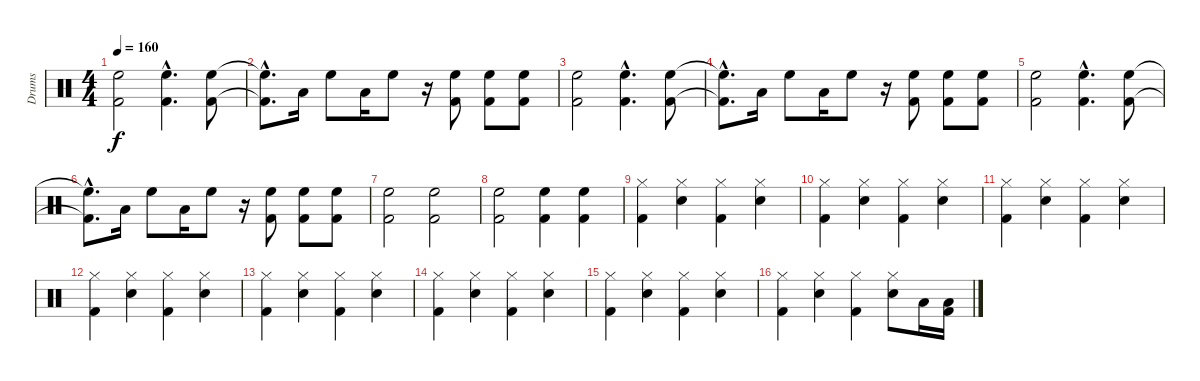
\track ("Drums" "Drums") {instrument percussion}
\staff {score}
\articulation defaults
\ts (4 4)
\tempo 160
\clef neutral
\ks c
("High Floor Tom (hit)" "Kick (hit) 2").2{dy f} ("High Floor Tom (hit)"{hac} "Kick (hit) 2"{hac}).4{d} ("High Floor Tom (hit)" "Kick (hit) 2").8 |
("High Floor Tom (hit)"{hac t} "Kick (hit) 2"{hac t}).8{d} "Low Floor Tom (hit)".16 "High Floor Tom (hit)".8 "Low Floor Tom (hit)".16 "High Floor Tom (hit)".8 r.16 ("High Floor Tom (hit)" "Kick (hit) 2").8 ("High Floor Tom (hit)" "Kick (hit) 2").8 ("High Floor Tom (hit)" "Kick (hit) 2").8 |
("High Floor Tom (hit)" "Kick (hit) 2").2 ("High Floor Tom (hit)"{hac} "Kick (hit) 2"{hac}).4{d} ("High Floor Tom (hit)" "Kick (hit) 2").8 |
("High Floor Tom (hit)"{hac t} "Kick (hit) 2"{hac t}).8{d} "Low Floor Tom (hit)".16 "High Floor Tom (hit)".8 "Low Floor Tom (hit)".16 "High Floor Tom (hit)".8 r.16 ("High Floor Tom (hit)" "Kick (hit) 2").8 ("High Floor Tom (hit)" "Kick (hit) 2").8 ("High Floor Tom (hit)" "Kick (hit) 2").8 |
("High Floor Tom (hit)" "Kick (hit) 2").2 ("High Floor Tom (hit)"{hac} "Kick (hit) 2"{hac}).4{d} ("High Floor Tom (hit)" "Kick (hit) 2").8 |
("High Floor Tom (hit)"{hac t} "Kick (hit) 2"{hac t}).8{d} "Low Floor Tom (hit)".16 "High Floor Tom (hit)".8 "Low Floor Tom (hit)".16 "High Floor Tom (hit)".8 r.16 ("High Floor Tom (hit)" "Kick (hit) 2").8 ("High Floor Tom (hit)" "Kick (hit) 2").8 ("High Floor Tom (hit)" "Kick (hit) 2").8 |
("High Floor Tom (hit)" "Kick (hit) 2").2 ("High Floor Tom (hit)" "Kick (hit) 2").2 |
("High Floor Tom (hit)" "Kick (hit) 2").2 ("High Floor Tom (hit)" "Kick (hit) 2").4 ("High Floor Tom (hit)" "Kick (hit) 2").4 |
("Hi-Hat (closed)" "Kick (hit) 2").4 ("Hi-Hat (closed)" "Snare (hit) 2").4 ("Hi-Hat (closed)" "Kick (hit) 2").4 ("Hi-Hat (closed)" "Snare (hit) 2").4 |
("Hi-Hat (closed)" "Kick (hit) 2").4 ("Hi-Hat (closed)" "Snare (hit) 2").4 ("Hi-Hat (closed)" "Kick (hit) 2").4 ("Hi-Hat (closed)" "Snare (hit) 2").4 |
("Hi-Hat (closed)" "Kick (hit) 2").4 ("Hi-Hat (closed)" "Snare (hit) 2").4 ("Hi-Hat (closed)" "Kick (hit) 2").4 ("Hi-Hat (closed)" "Snare (hit) 2").4 |
("Hi-Hat (closed)" "Kick (hit) 2").4 ("Hi-Hat (closed)" "Snare (hit) 2").4 ("Hi-Hat (closed)" "Kick (hit) 2").4 ("Hi-Hat (closed)" "Snare (hit) 2").4 |
("Hi-Hat (closed)" "Kick (hit) 2").4 ("Hi-Hat (closed)" "Snare (hit) 2").4 ("Hi-Hat (closed)" "Kick (hit) 2").4 ("Hi-Hat (closed)" "Snare (hit) 2").4 |
("Hi-Hat (closed)" "Kick (hit) 2").4 ("Hi-Hat (closed)" "Snare (hit) 2").4 ("Hi-Hat (closed)" "Kick (hit) 2").4 ("Hi-Hat (closed)" "Snare (hit) 2").4 |
("Hi-Hat (closed)" "Kick (hit) 2").4 ("Hi-Hat (closed)" "Snare (hit) 2").4 ("Hi-Hat (closed)" "Kick (hit) 2").4 ("Hi-Hat (closed)" "Snare (hit) 2").4 |
("Hi-Hat (closed)" "Kick (hit) 2").4 ("Hi-Hat (closed)" "Snare (hit) 2").4 ("Hi-Hat (closed)" "Kick (hit) 2").4 ("Hi-Hat (closed)" "Snare (hit) 2").8 "Low Tom (hit)".16 ("Low Floor Tom (hit)" "Kick (hit) 2").16
